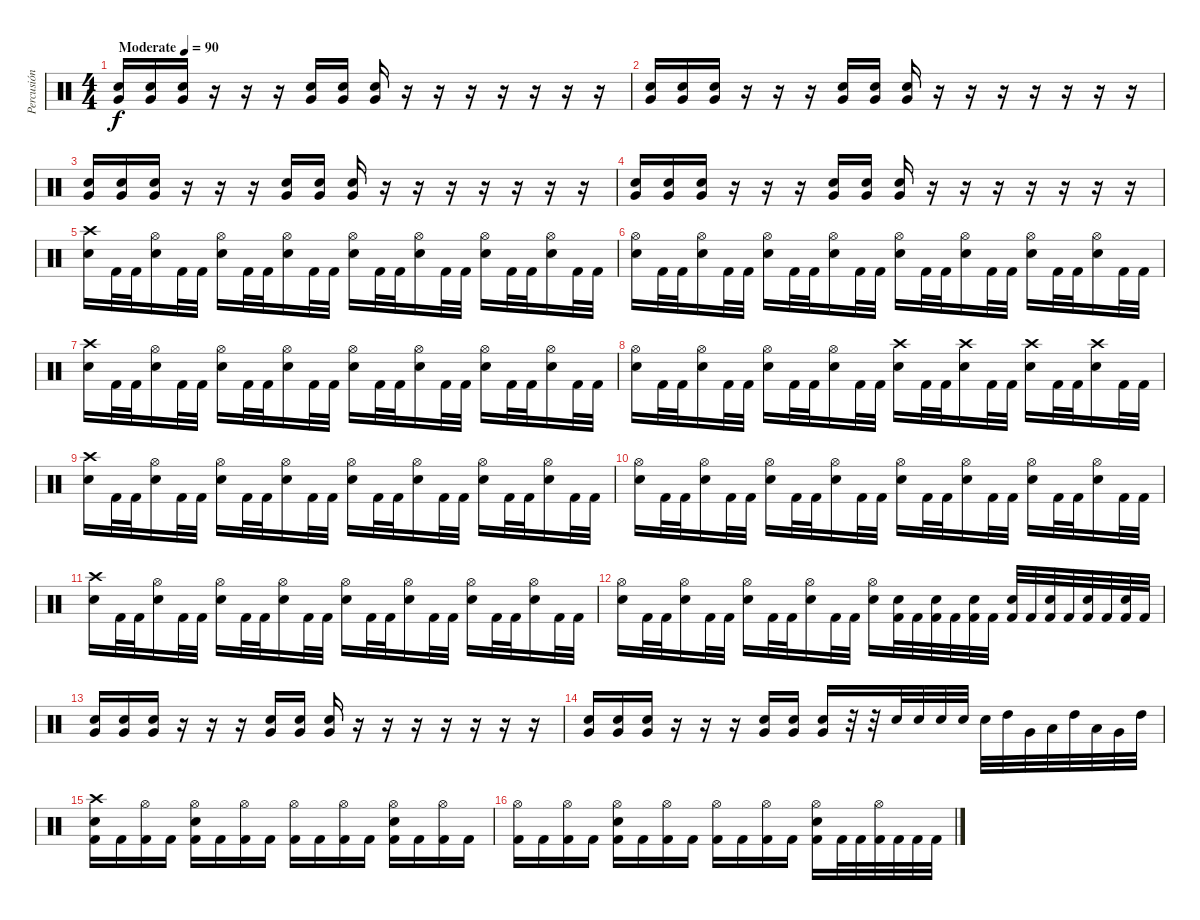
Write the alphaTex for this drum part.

\track ("Percusión" "Percusión") {instrument percussion}
\staff {score}
\articulation defaults
\ts (4 4)
\tempo (90 "Moderate")
\clef neutral
\ks c
("Very Low Tom (hit)" "Electric Snare (hit)").16{dy f} ("Very Low Tom (hit)" "Electric Snare (hit)").16 ("Very Low Tom (hit)" "Electric Snare (hit)").16 r.16 r.16 r.16 ("Very Low Tom (hit)" "Electric Snare (hit)").16 ("Very Low Tom (hit)" "Electric Snare (hit)").16 ("Very Low Tom (hit)" "Electric Snare (hit)").16 r.16 r.16 r.16 r.16 r.16 r.16 r.16 |
("Very Low Tom (hit)" "Electric Snare (hit)").16 ("Very Low Tom (hit)" "Electric Snare (hit)").16 ("Very Low Tom (hit)" "Electric Snare (hit)").16 r.16 r.16 r.16 ("Very Low Tom (hit)" "Electric Snare (hit)").16 ("Very Low Tom (hit)" "Electric Snare (hit)").16 ("Very Low Tom (hit)" "Electric Snare (hit)").16 r.16 r.16 r.16 r.16 r.16 r.16 r.16 |
("Very Low Tom (hit)" "Electric Snare (hit)").16 ("Very Low Tom (hit)" "Electric Snare (hit)").16 ("Very Low Tom (hit)" "Electric Snare (hit)").16 r.16 r.16 r.16 ("Very Low Tom (hit)" "Electric Snare (hit)").16 ("Very Low Tom (hit)" "Electric Snare (hit)").16 ("Very Low Tom (hit)" "Electric Snare (hit)").16 r.16 r.16 r.16 r.16 r.16 r.16 r.16 |
("Very Low Tom (hit)" "Electric Snare (hit)").16 ("Very Low Tom (hit)" "Electric Snare (hit)").16 ("Very Low Tom (hit)" "Electric Snare (hit)").16 r.16 r.16 r.16 ("Very Low Tom (hit)" "Electric Snare (hit)").16 ("Very Low Tom (hit)" "Electric Snare (hit)").16 ("Very Low Tom (hit)" "Electric Snare (hit)").16 r.16 r.16 r.16 r.16 r.16 r.16 r.16 |
("Electric Snare (hit)" "Crash high (hit)").16 "Kick (hit) 2".32 "Kick (hit) 2".32 ("Hi-Hat (open)" "Electric Snare (hit)").16 "Kick (hit) 2".32 "Kick (hit) 2".32 ("Hi-Hat (open)" "Electric Snare (hit)").16 "Kick (hit) 2".32 "Kick (hit) 2".32 ("Hi-Hat (open)" "Electric Snare (hit)").16 "Kick (hit) 2".32 "Kick (hit) 2".32 ("Hi-Hat (open)" "Electric Snare (hit)").16 "Kick (hit) 2".32 "Kick (hit) 2".32 ("Hi-Hat (open)" "Electric Snare (hit)").16 "Kick (hit) 2".32 "Kick (hit) 2".32 ("Hi-Hat (open)" "Electric Snare (hit)").16 "Kick (hit) 2".32 "Kick (hit) 2".32 ("Hi-Hat (open)" "Electric Snare (hit)").16 "Kick (hit) 2".32 "Kick (hit) 2".32 |
("Hi-Hat (open)" "Electric Snare (hit)").16 "Kick (hit) 2".32 "Kick (hit) 2".32 ("Hi-Hat (open)" "Electric Snare (hit)").16 "Kick (hit) 2".32 "Kick (hit) 2".32 ("Hi-Hat (open)" "Electric Snare (hit)").16 "Kick (hit) 2".32 "Kick (hit) 2".32 ("Hi-Hat (open)" "Electric Snare (hit)").16 "Kick (hit) 2".32 "Kick (hit) 2".32 ("Hi-Hat (open)" "Electric Snare (hit)").16 "Kick (hit) 2".32 "Kick (hit) 2".32 ("Hi-Hat (open)" "Electric Snare (hit)").16 "Kick (hit) 2".32 "Kick (hit) 2".32 ("Hi-Hat (open)" "Electric Snare (hit)").16 "Kick (hit) 2".32 "Kick (hit) 2".32 ("Hi-Hat (open)" "Electric Snare (hit)").16 "Kick (hit) 2".32 "Kick (hit) 2".32 |
("Electric Snare (hit)" "Crash high (hit)").16 "Kick (hit) 2".32 "Kick (hit) 2".32 ("Hi-Hat (open)" "Electric Snare (hit)").16 "Kick (hit) 2".32 "Kick (hit) 2".32 ("Hi-Hat (open)" "Electric Snare (hit)").16 "Kick (hit) 2".32 "Kick (hit) 2".32 ("Hi-Hat (open)" "Electric Snare (hit)").16 "Kick (hit) 2".32 "Kick (hit) 2".32 ("Hi-Hat (open)" "Electric Snare (hit)").16 "Kick (hit) 2".32 "Kick (hit) 2".32 ("Hi-Hat (open)" "Electric Snare (hit)").16 "Kick (hit) 2".32 "Kick (hit) 2".32 ("Hi-Hat (open)" "Electric Snare (hit)").16 "Kick (hit) 2".32 "Kick (hit) 2".32 ("Hi-Hat (open)" "Electric Snare (hit)").16 "Kick (hit) 2".32 "Kick (hit) 2".32 |
("Hi-Hat (open)" "Electric Snare (hit)").16 "Kick (hit) 2".32 "Kick (hit) 2".32 ("Hi-Hat (open)" "Electric Snare (hit)").16 "Kick (hit) 2".32 "Kick (hit) 2".32 ("Hi-Hat (open)" "Electric Snare (hit)").16 "Kick (hit) 2".32 "Kick (hit) 2".32 ("Hi-Hat (open)" "Electric Snare (hit)").16 "Kick (hit) 2".32 "Kick (hit) 2".32 ("Crash high (hit)" "Electric Snare (hit)").16 "Kick (hit) 2".32 "Kick (hit) 2".32 ("Crash high (hit)" "Electric Snare (hit)").16 "Kick (hit) 2".32 "Kick (hit) 2".32 ("Crash high (hit)" "Electric Snare (hit)").16 "Kick (hit) 2".32 "Kick (hit) 2".32 ("Crash high (hit)" "Electric Snare (hit)").16 "Kick (hit) 2".32 "Kick (hit) 2".32 |
("Electric Snare (hit)" "Crash high (hit)").16 "Kick (hit) 2".32 "Kick (hit) 2".32 ("Hi-Hat (open)" "Electric Snare (hit)").16 "Kick (hit) 2".32 "Kick (hit) 2".32 ("Hi-Hat (open)" "Electric Snare (hit)").16 "Kick (hit) 2".32 "Kick (hit) 2".32 ("Hi-Hat (open)" "Electric Snare (hit)").16 "Kick (hit) 2".32 "Kick (hit) 2".32 ("Hi-Hat (open)" "Electric Snare (hit)").16 "Kick (hit) 2".32 "Kick (hit) 2".32 ("Hi-Hat (open)" "Electric Snare (hit)").16 "Kick (hit) 2".32 "Kick (hit) 2".32 ("Hi-Hat (open)" "Electric Snare (hit)").16 "Kick (hit) 2".32 "Kick (hit) 2".32 ("Hi-Hat (open)" "Electric Snare (hit)").16 "Kick (hit) 2".32 "Kick (hit) 2".32 |
("Hi-Hat (open)" "Electric Snare (hit)").16 "Kick (hit) 2".32 "Kick (hit) 2".32 ("Hi-Hat (open)" "Electric Snare (hit)").16 "Kick (hit) 2".32 "Kick (hit) 2".32 ("Hi-Hat (open)" "Electric Snare (hit)").16 "Kick (hit) 2".32 "Kick (hit) 2".32 ("Hi-Hat (open)" "Electric Snare (hit)").16 "Kick (hit) 2".32 "Kick (hit) 2".32 ("Hi-Hat (open)" "Electric Snare (hit)").16 "Kick (hit) 2".32 "Kick (hit) 2".32 ("Hi-Hat (open)" "Electric Snare (hit)").16 "Kick (hit) 2".32 "Kick (hit) 2".32 ("Hi-Hat (open)" "Electric Snare (hit)").16 "Kick (hit) 2".32 "Kick (hit) 2".32 ("Hi-Hat (open)" "Electric Snare (hit)").16 "Kick (hit) 2".32 "Kick (hit) 2".32 |
("Electric Snare (hit)" "Crash high (hit)").16 "Kick (hit) 2".32 "Kick (hit) 2".32 ("Hi-Hat (open)" "Electric Snare (hit)").16 "Kick (hit) 2".32 "Kick (hit) 2".32 ("Hi-Hat (open)" "Electric Snare (hit)").16 "Kick (hit) 2".32 "Kick (hit) 2".32 ("Hi-Hat (open)" "Electric Snare (hit)").16 "Kick (hit) 2".32 "Kick (hit) 2".32 ("Hi-Hat (open)" "Electric Snare (hit)").16 "Kick (hit) 2".32 "Kick (hit) 2".32 ("Hi-Hat (open)" "Electric Snare (hit)").16 "Kick (hit) 2".32 "Kick (hit) 2".32 ("Hi-Hat (open)" "Electric Snare (hit)").16 "Kick (hit) 2".32 "Kick (hit) 2".32 ("Hi-Hat (open)" "Electric Snare (hit)").16 "Kick (hit) 2".32 "Kick (hit) 2".32 |
("Hi-Hat (open)" "Electric Snare (hit)").16 "Kick (hit) 2".32 "Kick (hit) 2".32 ("Hi-Hat (open)" "Electric Snare (hit)").16 "Kick (hit) 2".32 "Kick (hit) 2".32 ("Hi-Hat (open)" "Electric Snare (hit)").16 "Kick (hit) 2".32 "Kick (hit) 2".32 ("Hi-Hat (open)" "Electric Snare (hit)").16 "Kick (hit) 2".32 "Kick (hit) 2".32 ("Hi-Hat (open)" "Electric Snare (hit)").16 ("Electric Snare (hit)" "Kick (hit) 2").32 "Kick (hit) 2".32 ("Electric Snare (hit)" "Kick (hit) 2").32 "Kick (hit) 2".32 ("Electric Snare (hit)" "Kick (hit) 2").32 "Kick (hit) 2".32 ("Electric Snare (hit)" "Kick (hit) 2").32 "Kick (hit) 2".32 ("Electric Snare (hit)" "Kick (hit) 2").32 "Kick (hit) 2".32 ("Electric Snare (hit)" "Kick (hit) 2").32 "Kick (hit) 2".32 ("Electric Snare (hit)" "Kick (hit) 2").32 "Kick (hit) 2".32 |
("Very Low Tom (hit)" "Electric Snare (hit)").16 ("Very Low Tom (hit)" "Electric Snare (hit)").16 ("Very Low Tom (hit)" "Electric Snare (hit)").16 r.16 r.16 r.16 ("Very Low Tom (hit)" "Electric Snare (hit)").16 ("Very Low Tom (hit)" "Electric Snare (hit)").16 ("Very Low Tom (hit)" "Electric Snare (hit)").16 r.16 r.16 r.16 r.16 r.16 r.16 r.16 |
("Very Low Tom (hit)" "Electric Snare (hit)").16 ("Very Low Tom (hit)" "Electric Snare (hit)").16 ("Very Low Tom (hit)" "Electric Snare (hit)").16 r.16 r.16 r.16 ("Very Low Tom (hit)" "Electric Snare (hit)").16 ("Very Low Tom (hit)" "Electric Snare (hit)").16 ("Very Low Tom (hit)" "Electric Snare (hit)").16 r.32 r.32 "Electric Snare (hit)".32 "Electric Snare (hit)".32 "Electric Snare (hit)".32 "Electric Snare (hit)".32 "Electric Snare (hit)".32 "High Tom (hit)".32 "Very Low Tom (hit)".32 "Low Tom (hit)".32 "High Tom (hit)".32 "Low Tom (hit)".32 "Very Low Tom (hit)".32 "High Tom (hit)".32 |
("Electric Snare (hit)" "Crash high (hit)" "Kick (hit) 2").16 "Kick (hit) 2".16 ("Hi-Hat (open)" "Kick (hit) 2").16 "Kick (hit) 2".16 ("Hi-Hat (open)" "Electric Snare (hit)" "Kick (hit) 2").16 "Kick (hit) 2".16 ("Hi-Hat (open)" "Kick (hit) 2").16 "Kick (hit) 2".16 ("Hi-Hat (open)" "Kick (hit) 2").16 "Kick (hit) 2".16 ("Hi-Hat (open)" "Kick (hit) 2").16 "Kick (hit) 2".16 ("Hi-Hat (open)" "Electric Snare (hit)" "Kick (hit) 2").16 "Kick (hit) 2".16 ("Hi-Hat (open)" "Kick (hit) 2").16 "Kick (hit) 2".16 |
("Hi-Hat (open)" "Kick (hit) 2").16 "Kick (hit) 2".16 ("Hi-Hat (open)" "Kick (hit) 2").16 "Kick (hit) 2".16 ("Hi-Hat (open)" "Electric Snare (hit)" "Kick (hit) 2").16 "Kick (hit) 2".16 ("Hi-Hat (open)" "Kick (hit) 2").16 "Kick (hit) 2".16 ("Hi-Hat (open)" "Kick (hit) 2").16 "Kick (hit) 2".16 ("Hi-Hat (open)" "Kick (hit) 2").16 "Kick (hit) 2".16 ("Hi-Hat (open)" "Electric Snare (hit)" "Kick (hit) 2").16 "Kick (hit) 2".32 "Kick (hit) 2".32 ("Hi-Hat (open)" "Kick (hit) 2").32 "Kick (hit) 2".32 "Kick (hit) 2".32 "Kick (hit) 2".32
